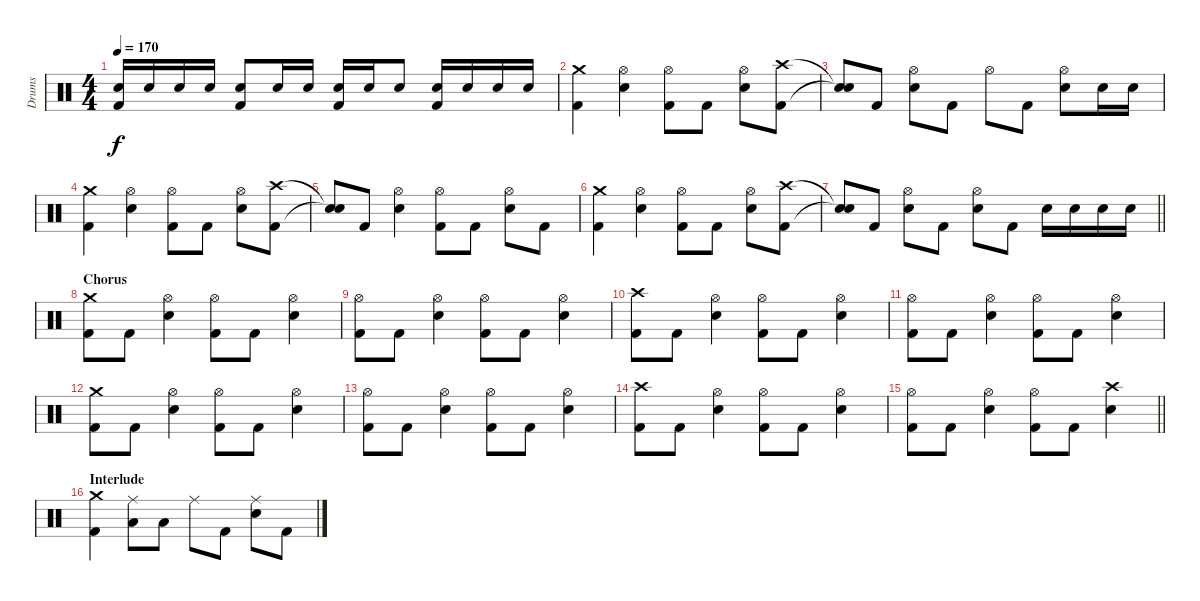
\track ("Drums" "Drums") {instrument percussion}
\staff {score}
\articulation defaults
\ts (4 4)
\tempo 170
\clef neutral
\ks c
("Electric Snare (hit)" "Kick (hit) 2").16{dy f} "Electric Snare (hit)".16 "Electric Snare (hit)".16 "Electric Snare (hit)".16 ("Electric Snare (hit)" "Kick (hit) 2").8 "Electric Snare (hit)".16 "Electric Snare (hit)".16 ("Electric Snare (hit)" "Kick (hit) 2").16 "Electric Snare (hit)".16 "Electric Snare (hit)".8 ("Electric Snare (hit)" "Kick (hit) 2").16 "Electric Snare (hit)".16 "Electric Snare (hit)".16 "Electric Snare (hit)".16 |
("Crash medium (hit)" "Kick (hit) 2").4 ("Hi-Hat (open)" "Electric Snare (hit)").4 ("Hi-Hat (open)" "Kick (hit) 2").8 "Kick (hit) 2".8 ("Hi-Hat (open)" "Electric Snare (hit)").8 ("Crash high (hit)" "Kick (hit) 2").8 |
("Snare (hit)"{t} "Snare (hit)"{t}).8 "Kick (hit) 2".8 ("Hi-Hat (open)" "Electric Snare (hit)").8 "Kick (hit) 2".8 "Hi-Hat (open)".8 "Kick (hit) 2".8 ("Hi-Hat (open)" "Electric Snare (hit)").8 "Electric Snare (hit)".16 "Electric Snare (hit)".16 |
("Crash medium (hit)" "Kick (hit) 2").4 ("Hi-Hat (open)" "Electric Snare (hit)").4 ("Hi-Hat (open)" "Kick (hit) 2").8 "Kick (hit) 2".8 ("Hi-Hat (open)" "Electric Snare (hit)").8 ("Crash high (hit)" "Kick (hit) 2").8 |
("Snare (hit)"{t} "Snare (hit)"{t}).8 "Kick (hit) 2".8 ("Hi-Hat (open)" "Electric Snare (hit)").4 ("Hi-Hat (open)" "Kick (hit) 2").8 "Kick (hit) 2".8 ("Hi-Hat (open)" "Electric Snare (hit)").8 "Kick (hit) 2".8 |
("Crash medium (hit)" "Kick (hit) 2").4 ("Hi-Hat (open)" "Electric Snare (hit)").4 ("Hi-Hat (open)" "Kick (hit) 2").8 "Kick (hit) 2".8 ("Hi-Hat (open)" "Electric Snare (hit)").8 ("Crash high (hit)" "Kick (hit) 2").8 |
\barLineRight lightlight
("Snare (hit)"{t} "Snare (hit)"{t}).8 "Kick (hit) 2".8 ("Hi-Hat (open)" "Electric Snare (hit)").8 "Kick (hit) 2".8 ("Hi-Hat (open)" "Electric Snare (hit)").8 "Kick (hit) 2".8 "Electric Snare (hit)".16 "Electric Snare (hit)".16 "Electric Snare (hit)".16 "Electric Snare (hit)".16 |
\section ("" "Chorus")
("Crash medium (hit)" "Kick (hit) 2").8 "Kick (hit) 2".8 ("Hi-Hat (open)" "Electric Snare (hit)").4 ("Hi-Hat (open)" "Kick (hit) 2").8 "Kick (hit) 2".8 ("Hi-Hat (open)" "Electric Snare (hit)").4 |
("Hi-Hat (open)" "Kick (hit) 2").8 "Kick (hit) 2".8 ("Hi-Hat (open)" "Electric Snare (hit)").4 ("Hi-Hat (open)" "Kick (hit) 2").8 "Kick (hit) 2".8 ("Hi-Hat (open)" "Electric Snare (hit)").4 |
("Crash high (hit)" "Kick (hit) 2").8 "Kick (hit) 2".8 ("Hi-Hat (open)" "Electric Snare (hit)").4 ("Hi-Hat (open)" "Kick (hit) 2").8 "Kick (hit) 2".8 ("Hi-Hat (open)" "Electric Snare (hit)").4 |
("Hi-Hat (open)" "Kick (hit) 2").8 "Kick (hit) 2".8 ("Hi-Hat (open)" "Electric Snare (hit)").4 ("Hi-Hat (open)" "Kick (hit) 2").8 "Kick (hit) 2".8 ("Hi-Hat (open)" "Electric Snare (hit)").4 |
("Crash medium (hit)" "Kick (hit) 2").8 "Kick (hit) 2".8 ("Hi-Hat (open)" "Electric Snare (hit)").4 ("Hi-Hat (open)" "Kick (hit) 2").8 "Kick (hit) 2".8 ("Hi-Hat (open)" "Electric Snare (hit)").4 |
("Hi-Hat (open)" "Kick (hit) 2").8 "Kick (hit) 2".8 ("Hi-Hat (open)" "Electric Snare (hit)").4 ("Hi-Hat (open)" "Kick (hit) 2").8 "Kick (hit) 2".8 ("Hi-Hat (open)" "Electric Snare (hit)").4 |
("Crash high (hit)" "Kick (hit) 2").8 "Kick (hit) 2".8 ("Hi-Hat (open)" "Electric Snare (hit)").4 ("Hi-Hat (open)" "Kick (hit) 2").8 "Kick (hit) 2".8 ("Hi-Hat (open)" "Electric Snare (hit)").4 |
\barLineRight lightlight
("Hi-Hat (open)" "Kick (hit) 2").8 "Kick (hit) 2".8 ("Hi-Hat (open)" "Electric Snare (hit)").4 ("Hi-Hat (open)" "Kick (hit) 2").8 "Kick (hit) 2".8 ("Crash high (hit)" "Electric Snare (hit)").4 |
\section ("" "Interlude")
("Crash medium (hit)" "Kick (hit) 2").4 ("Ride (middle)" "Low Tom (hit)").8 "Low Tom (hit)".8 "Ride (middle)".8 "Kick (hit) 2".8 ("Ride (middle)" "Electric Snare (hit)").8 "Kick (hit) 2".8
